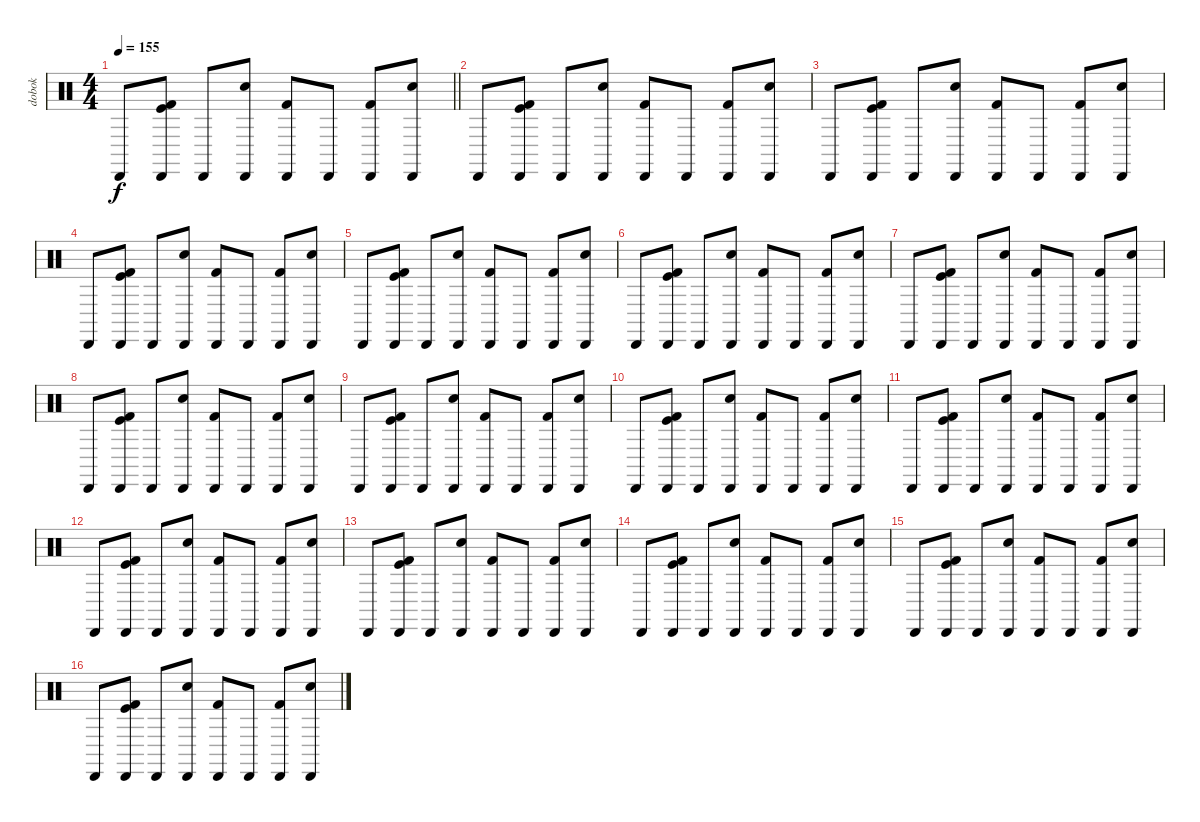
\track ("dobok" "dobok") {instrument percussion}
\staff {score}
\articulation defaults
\ts (4 4)
\tempo 155
\clef neutral
\barLineRight lightlight
\ks c "Cabasa (hit)".8{dy f}
("Cabasa (hit)" "Kick (hit) 2" "Kick (hit)").8 "Cabasa (hit)".8 ("Cabasa (hit)" "Electric Snare (hit)").8 ("Cabasa (hit)" "Kick (hit) 2").8 "Cabasa (hit)".8 ("Cabasa (hit)" "Kick (hit) 2").8 ("Cabasa (hit)" "Electric Snare (hit)").8 |
"Cabasa (hit)".8 ("Cabasa (hit)" "Kick (hit) 2" "Kick (hit)").8 "Cabasa (hit)".8 ("Cabasa (hit)" "Electric Snare (hit)").8 ("Cabasa (hit)" "Kick (hit) 2").8 "Cabasa (hit)".8 ("Cabasa (hit)" "Kick (hit) 2").8 ("Cabasa (hit)" "Electric Snare (hit)").8 |
"Cabasa (hit)".8 ("Cabasa (hit)" "Kick (hit) 2" "Kick (hit)").8 "Cabasa (hit)".8 ("Cabasa (hit)" "Electric Snare (hit)").8 ("Cabasa (hit)" "Kick (hit) 2").8 "Cabasa (hit)".8 ("Cabasa (hit)" "Kick (hit) 2").8 ("Cabasa (hit)" "Electric Snare (hit)").8 |
"Cabasa (hit)".8 ("Cabasa (hit)" "Kick (hit) 2" "Kick (hit)").8 "Cabasa (hit)".8 ("Cabasa (hit)" "Electric Snare (hit)").8 ("Cabasa (hit)" "Kick (hit) 2").8 "Cabasa (hit)".8 ("Cabasa (hit)" "Kick (hit) 2").8 ("Cabasa (hit)" "Electric Snare (hit)").8 |
"Cabasa (hit)".8 ("Cabasa (hit)" "Kick (hit) 2" "Kick (hit)").8 "Cabasa (hit)".8 ("Cabasa (hit)" "Electric Snare (hit)").8 ("Cabasa (hit)" "Kick (hit) 2").8 "Cabasa (hit)".8 ("Cabasa (hit)" "Kick (hit) 2").8 ("Cabasa (hit)" "Electric Snare (hit)").8 |
"Cabasa (hit)".8 ("Cabasa (hit)" "Kick (hit) 2" "Kick (hit)").8 "Cabasa (hit)".8 ("Cabasa (hit)" "Electric Snare (hit)").8 ("Cabasa (hit)" "Kick (hit) 2").8 "Cabasa (hit)".8 ("Cabasa (hit)" "Kick (hit) 2").8 ("Cabasa (hit)" "Electric Snare (hit)").8 |
"Cabasa (hit)".8 ("Cabasa (hit)" "Kick (hit) 2" "Kick (hit)").8 "Cabasa (hit)".8 ("Cabasa (hit)" "Electric Snare (hit)").8 ("Cabasa (hit)" "Kick (hit) 2").8 "Cabasa (hit)".8 ("Cabasa (hit)" "Kick (hit) 2").8 ("Cabasa (hit)" "Electric Snare (hit)").8 |
"Cabasa (hit)".8 ("Cabasa (hit)" "Kick (hit) 2" "Kick (hit)").8 "Cabasa (hit)".8 ("Cabasa (hit)" "Electric Snare (hit)").8 ("Cabasa (hit)" "Kick (hit) 2").8 "Cabasa (hit)".8 ("Cabasa (hit)" "Kick (hit) 2").8 ("Cabasa (hit)" "Electric Snare (hit)").8 |
"Cabasa (hit)".8 ("Cabasa (hit)" "Kick (hit) 2" "Kick (hit)").8 "Cabasa (hit)".8 ("Cabasa (hit)" "Electric Snare (hit)").8 ("Cabasa (hit)" "Kick (hit) 2").8 "Cabasa (hit)".8 ("Cabasa (hit)" "Kick (hit) 2").8 ("Cabasa (hit)" "Electric Snare (hit)").8 |
"Cabasa (hit)".8 ("Cabasa (hit)" "Kick (hit) 2" "Kick (hit)").8 "Cabasa (hit)".8 ("Cabasa (hit)" "Electric Snare (hit)").8 ("Cabasa (hit)" "Kick (hit) 2").8 "Cabasa (hit)".8 ("Cabasa (hit)" "Kick (hit) 2").8 ("Cabasa (hit)" "Electric Snare (hit)").8 |
"Cabasa (hit)".8 ("Cabasa (hit)" "Kick (hit) 2" "Kick (hit)").8 "Cabasa (hit)".8 ("Cabasa (hit)" "Electric Snare (hit)").8 ("Cabasa (hit)" "Kick (hit) 2").8 "Cabasa (hit)".8 ("Cabasa (hit)" "Kick (hit) 2").8 ("Cabasa (hit)" "Electric Snare (hit)").8 |
"Cabasa (hit)".8 ("Cabasa (hit)" "Kick (hit) 2" "Kick (hit)").8 "Cabasa (hit)".8 ("Cabasa (hit)" "Electric Snare (hit)").8 ("Cabasa (hit)" "Kick (hit) 2").8 "Cabasa (hit)".8 ("Cabasa (hit)" "Kick (hit) 2").8 ("Cabasa (hit)" "Electric Snare (hit)").8 |
"Cabasa (hit)".8 ("Cabasa (hit)" "Kick (hit) 2" "Kick (hit)").8 "Cabasa (hit)".8 ("Cabasa (hit)" "Electric Snare (hit)").8 ("Cabasa (hit)" "Kick (hit) 2").8 "Cabasa (hit)".8 ("Cabasa (hit)" "Kick (hit) 2").8 ("Cabasa (hit)" "Electric Snare (hit)").8 |
"Cabasa (hit)".8 ("Cabasa (hit)" "Kick (hit) 2" "Kick (hit)").8 "Cabasa (hit)".8 ("Cabasa (hit)" "Electric Snare (hit)").8 ("Cabasa (hit)" "Kick (hit) 2").8 "Cabasa (hit)".8 ("Cabasa (hit)" "Kick (hit) 2").8 ("Cabasa (hit)" "Electric Snare (hit)").8 |
"Cabasa (hit)".8 ("Cabasa (hit)" "Kick (hit) 2" "Kick (hit)").8 "Cabasa (hit)".8 ("Cabasa (hit)" "Electric Snare (hit)").8 ("Cabasa (hit)" "Kick (hit) 2").8 "Cabasa (hit)".8 ("Cabasa (hit)" "Kick (hit) 2").8 ("Cabasa (hit)" "Electric Snare (hit)").8 |
"Cabasa (hit)".8 ("Cabasa (hit)" "Kick (hit) 2" "Kick (hit)").8 "Cabasa (hit)".8 ("Cabasa (hit)" "Electric Snare (hit)").8 ("Cabasa (hit)" "Kick (hit) 2").8 "Cabasa (hit)".8 ("Cabasa (hit)" "Kick (hit) 2").8 ("Cabasa (hit)" "Electric Snare (hit)").8
